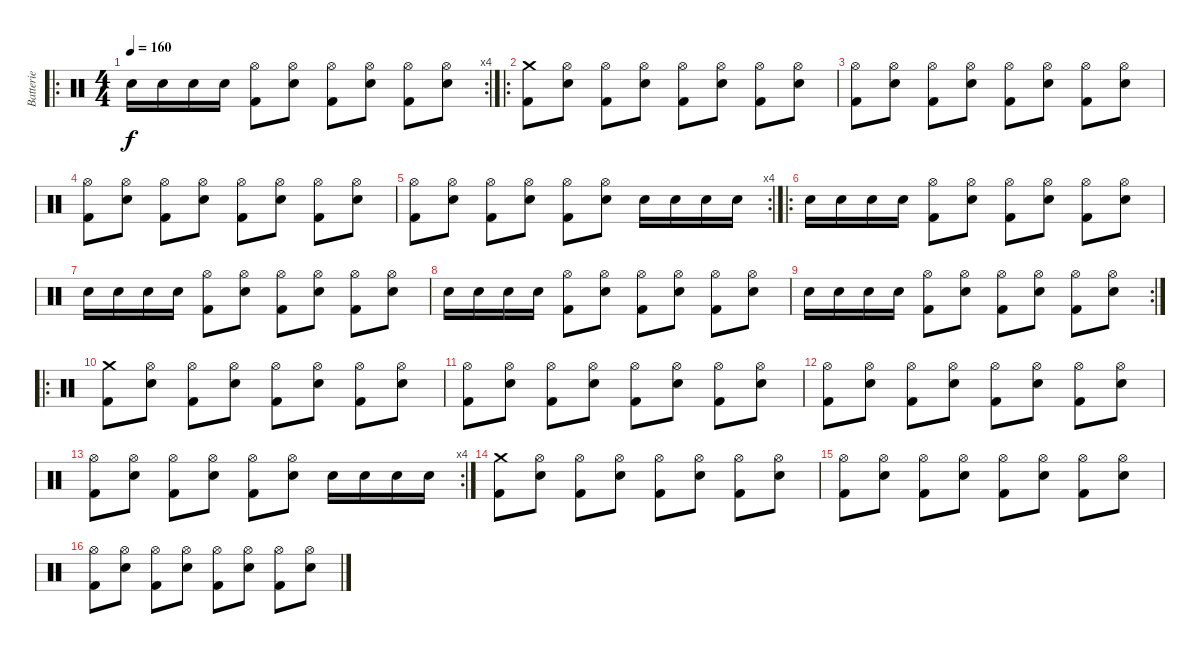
\track ("Batterie" "Batterie") {instrument percussion}
\staff {score}
\articulation defaults
\ro
\rc 4
\ts (4 4)
\tempo 160
\clef neutral
\ks c "Electric Snare (hit)".16{dy f} "Electric Snare (hit)".16 "Electric Snare (hit)".16 "Electric Snare (hit)".16
("Kick (hit) 2" "Hi-Hat (open)").8 ("Electric Snare (hit)" "Hi-Hat (open)").8 ("Kick (hit) 2" "Hi-Hat (open)").8 ("Electric Snare (hit)" "Hi-Hat (open)").8 ("Kick (hit) 2" "Hi-Hat (open)").8 ("Electric Snare (hit)" "Hi-Hat (open)").8 |
\ro
("Kick (hit) 2" "Crash medium (hit)").8 ("Electric Snare (hit)" "Hi-Hat (open)").8 ("Kick (hit) 2" "Hi-Hat (open)").8 ("Electric Snare (hit)" "Hi-Hat (open)").8 ("Kick (hit) 2" "Hi-Hat (open)").8 ("Electric Snare (hit)" "Hi-Hat (open)").8 ("Kick (hit) 2" "Hi-Hat (open)").8 ("Electric Snare (hit)" "Hi-Hat (open)").8 |
("Kick (hit) 2" "Hi-Hat (open)").8 ("Electric Snare (hit)" "Hi-Hat (open)").8 ("Kick (hit) 2" "Hi-Hat (open)").8 ("Electric Snare (hit)" "Hi-Hat (open)").8 ("Kick (hit) 2" "Hi-Hat (open)").8 ("Electric Snare (hit)" "Hi-Hat (open)").8 ("Kick (hit) 2" "Hi-Hat (open)").8 ("Electric Snare (hit)" "Hi-Hat (open)").8 |
("Kick (hit) 2" "Hi-Hat (open)").8 ("Electric Snare (hit)" "Hi-Hat (open)").8 ("Kick (hit) 2" "Hi-Hat (open)").8 ("Electric Snare (hit)" "Hi-Hat (open)").8 ("Kick (hit) 2" "Hi-Hat (open)").8 ("Electric Snare (hit)" "Hi-Hat (open)").8 ("Kick (hit) 2" "Hi-Hat (open)").8 ("Electric Snare (hit)" "Hi-Hat (open)").8 |
\rc 4
("Kick (hit) 2" "Hi-Hat (open)").8 ("Electric Snare (hit)" "Hi-Hat (open)").8 ("Kick (hit) 2" "Hi-Hat (open)").8 ("Electric Snare (hit)" "Hi-Hat (open)").8 ("Kick (hit) 2" "Hi-Hat (open)").8 ("Electric Snare (hit)" "Hi-Hat (open)").8 "Electric Snare (hit)".16 "Electric Snare (hit)".16 "Electric Snare (hit)".16 "Electric Snare (hit)".16 |
\ro "Electric Snare (hit)".16 "Electric Snare (hit)".16 "Electric Snare (hit)".16 "Electric Snare (hit)".16
("Kick (hit) 2" "Hi-Hat (open)").8 ("Electric Snare (hit)" "Hi-Hat (open)").8 ("Kick (hit) 2" "Hi-Hat (open)").8 ("Electric Snare (hit)" "Hi-Hat (open)").8 ("Kick (hit) 2" "Hi-Hat (open)").8 ("Electric Snare (hit)" "Hi-Hat (open)").8 |
"Electric Snare (hit)".16 "Electric Snare (hit)".16 "Electric Snare (hit)".16 "Electric Snare (hit)".16 ("Kick (hit) 2" "Hi-Hat (open)").8 ("Electric Snare (hit)" "Hi-Hat (open)").8 ("Kick (hit) 2" "Hi-Hat (open)").8 ("Electric Snare (hit)" "Hi-Hat (open)").8 ("Kick (hit) 2" "Hi-Hat (open)").8 ("Electric Snare (hit)" "Hi-Hat (open)").8 |
"Electric Snare (hit)".16 "Electric Snare (hit)".16 "Electric Snare (hit)".16 "Electric Snare (hit)".16 ("Kick (hit) 2" "Hi-Hat (open)").8 ("Electric Snare (hit)" "Hi-Hat (open)").8 ("Kick (hit) 2" "Hi-Hat (open)").8 ("Electric Snare (hit)" "Hi-Hat (open)").8 ("Kick (hit) 2" "Hi-Hat (open)").8 ("Electric Snare (hit)" "Hi-Hat (open)").8 |
\rc 2 "Electric Snare (hit)".16 "Electric Snare (hit)".16 "Electric Snare (hit)".16 "Electric Snare (hit)".16
("Kick (hit) 2" "Hi-Hat (open)").8 ("Electric Snare (hit)" "Hi-Hat (open)").8 ("Kick (hit) 2" "Hi-Hat (open)").8 ("Electric Snare (hit)" "Hi-Hat (open)").8 ("Kick (hit) 2" "Hi-Hat (open)").8 ("Electric Snare (hit)" "Hi-Hat (open)").8 |
\ro
("Kick (hit) 2" "Crash medium (hit)").8 ("Electric Snare (hit)" "Hi-Hat (open)").8 ("Kick (hit) 2" "Hi-Hat (open)").8 ("Electric Snare (hit)" "Hi-Hat (open)").8 ("Kick (hit) 2" "Hi-Hat (open)").8 ("Electric Snare (hit)" "Hi-Hat (open)").8 ("Kick (hit) 2" "Hi-Hat (open)").8 ("Electric Snare (hit)" "Hi-Hat (open)").8 |
("Kick (hit) 2" "Hi-Hat (open)").8 ("Electric Snare (hit)" "Hi-Hat (open)").8 ("Kick (hit) 2" "Hi-Hat (open)").8 ("Electric Snare (hit)" "Hi-Hat (open)").8 ("Kick (hit) 2" "Hi-Hat (open)").8 ("Electric Snare (hit)" "Hi-Hat (open)").8 ("Kick (hit) 2" "Hi-Hat (open)").8 ("Electric Snare (hit)" "Hi-Hat (open)").8 |
("Kick (hit) 2" "Hi-Hat (open)").8 ("Electric Snare (hit)" "Hi-Hat (open)").8 ("Kick (hit) 2" "Hi-Hat (open)").8 ("Electric Snare (hit)" "Hi-Hat (open)").8 ("Kick (hit) 2" "Hi-Hat (open)").8 ("Electric Snare (hit)" "Hi-Hat (open)").8 ("Kick (hit) 2" "Hi-Hat (open)").8 ("Electric Snare (hit)" "Hi-Hat (open)").8 |
\rc 4
("Kick (hit) 2" "Hi-Hat (open)").8 ("Electric Snare (hit)" "Hi-Hat (open)").8 ("Kick (hit) 2" "Hi-Hat (open)").8 ("Electric Snare (hit)" "Hi-Hat (open)").8 ("Kick (hit) 2" "Hi-Hat (open)").8 ("Electric Snare (hit)" "Hi-Hat (open)").8 "Electric Snare (hit)".16 "Electric Snare (hit)".16 "Electric Snare (hit)".16 "Electric Snare (hit)".16 |
("Kick (hit) 2" "Crash medium (hit)").8 ("Electric Snare (hit)" "Hi-Hat (open)").8 ("Kick (hit) 2" "Hi-Hat (open)").8 ("Electric Snare (hit)" "Hi-Hat (open)").8 ("Kick (hit) 2" "Hi-Hat (open)").8 ("Electric Snare (hit)" "Hi-Hat (open)").8 ("Kick (hit) 2" "Hi-Hat (open)").8 ("Electric Snare (hit)" "Hi-Hat (open)").8 |
("Kick (hit) 2" "Hi-Hat (open)").8 ("Electric Snare (hit)" "Hi-Hat (open)").8 ("Kick (hit) 2" "Hi-Hat (open)").8 ("Electric Snare (hit)" "Hi-Hat (open)").8 ("Kick (hit) 2" "Hi-Hat (open)").8 ("Electric Snare (hit)" "Hi-Hat (open)").8 ("Kick (hit) 2" "Hi-Hat (open)").8 ("Electric Snare (hit)" "Hi-Hat (open)").8 |
("Kick (hit) 2" "Hi-Hat (open)").8 ("Electric Snare (hit)" "Hi-Hat (open)").8 ("Kick (hit) 2" "Hi-Hat (open)").8 ("Electric Snare (hit)" "Hi-Hat (open)").8 ("Kick (hit) 2" "Hi-Hat (open)").8 ("Electric Snare (hit)" "Hi-Hat (open)").8 ("Kick (hit) 2" "Hi-Hat (open)").8 ("Electric Snare (hit)" "Hi-Hat (open)").8
